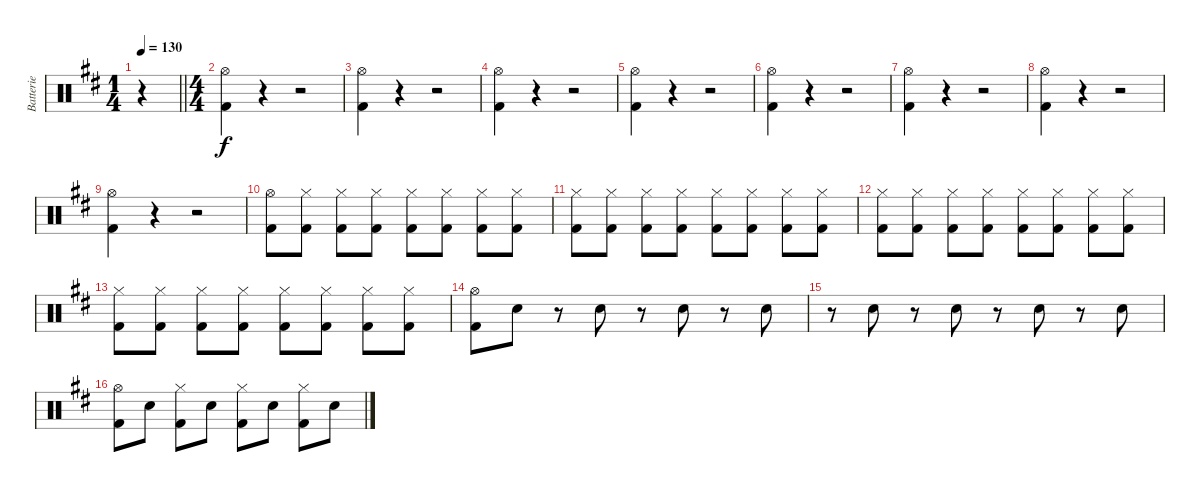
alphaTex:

\track ("Batterie" "Batterie") {instrument percussion}
\staff {score}
\articulation defaults
\ts (1 4)
\tempo 130
\clef neutral
\barLineRight lightlight
\ks d
r.4{dy f} |
\ts (4 4)
("Hi-Hat (open)" "Kick (hit) 2").4 r.4 r.2 |
("Hi-Hat (open)" "Kick (hit) 2").4 r.4 r.2 |
("Hi-Hat (open)" "Kick (hit) 2").4 r.4 r.2 |
("Hi-Hat (open)" "Kick (hit) 2").4 r.4 r.2 |
("Hi-Hat (open)" "Kick (hit) 2").4 r.4 r.2 |
("Hi-Hat (open)" "Kick (hit) 2").4 r.4 r.2 |
("Hi-Hat (open)" "Kick (hit) 2").4 r.4 r.2 |
("Hi-Hat (open)" "Kick (hit) 2").4 r.4 r.2 |
("Hi-Hat (open)" "Kick (hit) 2").8 ("Hi-Hat (closed)" "Kick (hit) 2").8 ("Hi-Hat (closed)" "Kick (hit) 2").8 ("Hi-Hat (closed)" "Kick (hit) 2").8 ("Hi-Hat (closed)" "Kick (hit) 2").8 ("Hi-Hat (closed)" "Kick (hit) 2").8 ("Hi-Hat (closed)" "Kick (hit) 2").8 ("Hi-Hat (closed)" "Kick (hit) 2").8 |
("Hi-Hat (closed)" "Kick (hit) 2").8 ("Hi-Hat (closed)" "Kick (hit) 2").8 ("Hi-Hat (closed)" "Kick (hit) 2").8 ("Hi-Hat (closed)" "Kick (hit) 2").8 ("Hi-Hat (closed)" "Kick (hit) 2").8 ("Hi-Hat (closed)" "Kick (hit) 2").8 ("Hi-Hat (closed)" "Kick (hit) 2").8 ("Hi-Hat (closed)" "Kick (hit) 2").8 |
("Hi-Hat (closed)" "Kick (hit) 2").8 ("Hi-Hat (closed)" "Kick (hit) 2").8 ("Hi-Hat (closed)" "Kick (hit) 2").8 ("Hi-Hat (closed)" "Kick (hit) 2").8 ("Hi-Hat (closed)" "Kick (hit) 2").8 ("Hi-Hat (closed)" "Kick (hit) 2").8 ("Hi-Hat (closed)" "Kick (hit) 2").8 ("Hi-Hat (closed)" "Kick (hit) 2").8 |
("Hi-Hat (closed)" "Kick (hit) 2").8 ("Hi-Hat (closed)" "Kick (hit) 2").8 ("Hi-Hat (closed)" "Kick (hit) 2").8 ("Hi-Hat (closed)" "Kick (hit) 2").8 ("Hi-Hat (closed)" "Kick (hit) 2").8 ("Hi-Hat (closed)" "Kick (hit) 2").8 ("Hi-Hat (closed)" "Kick (hit) 2").8 ("Hi-Hat (closed)" "Kick (hit) 2").8 |
("Hi-Hat (open)" "Kick (hit) 2").8 "Snare (hit) 2".8 r.8 "Snare (hit) 2".8 r.8 "Snare (hit) 2".8 r.8 "Snare (hit) 2".8 |
r.8 "Snare (hit) 2".8 r.8 "Snare (hit) 2".8 r.8 "Snare (hit) 2".8 r.8 "Snare (hit) 2".8 |
("Hi-Hat (open)" "Kick (hit) 2").8 "Snare (hit) 2".8 ("Hi-Hat (closed)" "Kick (hit) 2").8 "Snare (hit) 2".8 ("Hi-Hat (closed)" "Kick (hit) 2").8 "Snare (hit) 2".8 ("Hi-Hat (closed)" "Kick (hit) 2").8 "Snare (hit) 2".8
